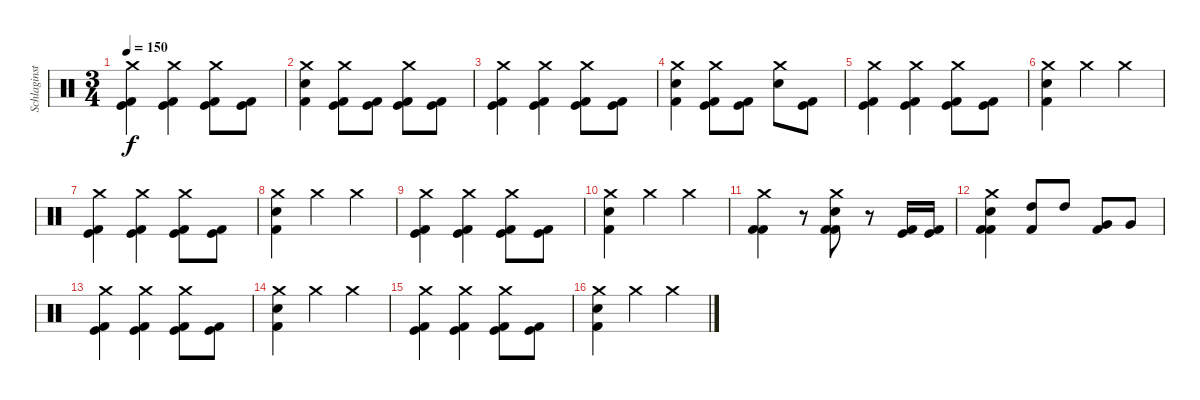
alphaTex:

\track ("Schlaginstrumente - Auswahl" "Schlaginst") {instrument percussion}
\staff {score}
\articulation defaults
\ts (3 4)
\tempo 150
\clef neutral
\ks c
("Crash medium (hit)" "Kick (hit)" "Kick (hit) 2").4{dy f} ("Crash medium (hit)" "Kick (hit)" "Kick (hit) 2").4 ("Crash medium (hit)" "Kick (hit)" "Kick (hit) 2").8 ("Kick (hit)" "Kick (hit) 2").8 |
("Crash medium (hit)" "Electric Snare (hit)" "Kick (hit) 2").4 ("Crash medium (hit)" "Kick (hit)" "Kick (hit) 2").8 ("Kick (hit)" "Kick (hit) 2").8 ("Crash medium (hit)" "Kick (hit)" "Kick (hit) 2").8 ("Kick (hit)" "Kick (hit) 2").8 |
("Crash medium (hit)" "Kick (hit)" "Kick (hit) 2").4 ("Crash medium (hit)" "Kick (hit)" "Kick (hit) 2").4 ("Crash medium (hit)" "Kick (hit)" "Kick (hit) 2").8 ("Kick (hit)" "Kick (hit) 2").8 |
("Crash medium (hit)" "Electric Snare (hit)" "Kick (hit) 2").4 ("Crash medium (hit)" "Kick (hit)" "Kick (hit) 2").8 ("Kick (hit)" "Kick (hit) 2").8 ("Crash medium (hit)" "Electric Snare (hit)").8 ("Kick (hit)" "Kick (hit) 2").8 |
("Crash medium (hit)" "Kick (hit)" "Kick (hit) 2").4 ("Crash medium (hit)" "Kick (hit)" "Kick (hit) 2").4 ("Crash medium (hit)" "Kick (hit)" "Kick (hit) 2").8 ("Kick (hit)" "Kick (hit) 2").8 |
("Crash medium (hit)" "Electric Snare (hit)" "Kick (hit) 2").4 "Crash medium (hit)".4 "Crash medium (hit)".4 |
("Crash medium (hit)" "Kick (hit)" "Kick (hit) 2").4 ("Crash medium (hit)" "Kick (hit)" "Kick (hit) 2").4 ("Crash medium (hit)" "Kick (hit)" "Kick (hit) 2").8 ("Kick (hit)" "Kick (hit) 2").8 |
("Crash medium (hit)" "Electric Snare (hit)" "Kick (hit) 2").4 "Crash medium (hit)".4 "Crash medium (hit)".4 |
("Crash medium (hit)" "Kick (hit)" "Kick (hit) 2").4 ("Crash medium (hit)" "Kick (hit)" "Kick (hit) 2").4 ("Crash medium (hit)" "Kick (hit)" "Kick (hit) 2").8 ("Kick (hit)" "Kick (hit) 2").8 |
("Crash medium (hit)" "Electric Snare (hit)" "Kick (hit) 2").4 "Crash medium (hit)".4 "Crash medium (hit)".4 |
("Crash medium (hit)" "Kick (hit) 2" "Kick (hit) 2").4 r.8 ("Crash medium (hit)" "Electric Snare (hit)" "Kick (hit) 2" "Kick (hit) 2").8 r.8 ("Kick (hit)" "Kick (hit) 2").16 ("Kick (hit)" "Kick (hit) 2").16 |
("Crash medium (hit)" "Electric Snare (hit)" "Kick (hit) 2" "Kick (hit) 2").4 ("High Tom (hit)" "Kick (hit) 2").8 "High Tom (hit)".8 ("Very Low Tom (hit)" "Kick (hit) 2").8 "Very Low Tom (hit)".8 |
("Crash medium (hit)" "Kick (hit)" "Kick (hit) 2").4 ("Crash medium (hit)" "Kick (hit)" "Kick (hit) 2").4 ("Crash medium (hit)" "Kick (hit)" "Kick (hit) 2").8 ("Kick (hit)" "Kick (hit) 2").8 |
("Crash medium (hit)" "Electric Snare (hit)" "Kick (hit) 2").4 "Crash medium (hit)".4 "Crash medium (hit)".4 |
("Crash medium (hit)" "Kick (hit)" "Kick (hit) 2").4 ("Crash medium (hit)" "Kick (hit)" "Kick (hit) 2").4 ("Crash medium (hit)" "Kick (hit)" "Kick (hit) 2").8 ("Kick (hit)" "Kick (hit) 2").8 |
("Crash medium (hit)" "Electric Snare (hit)" "Kick (hit) 2").4 "Crash medium (hit)".4 "Crash medium (hit)".4
